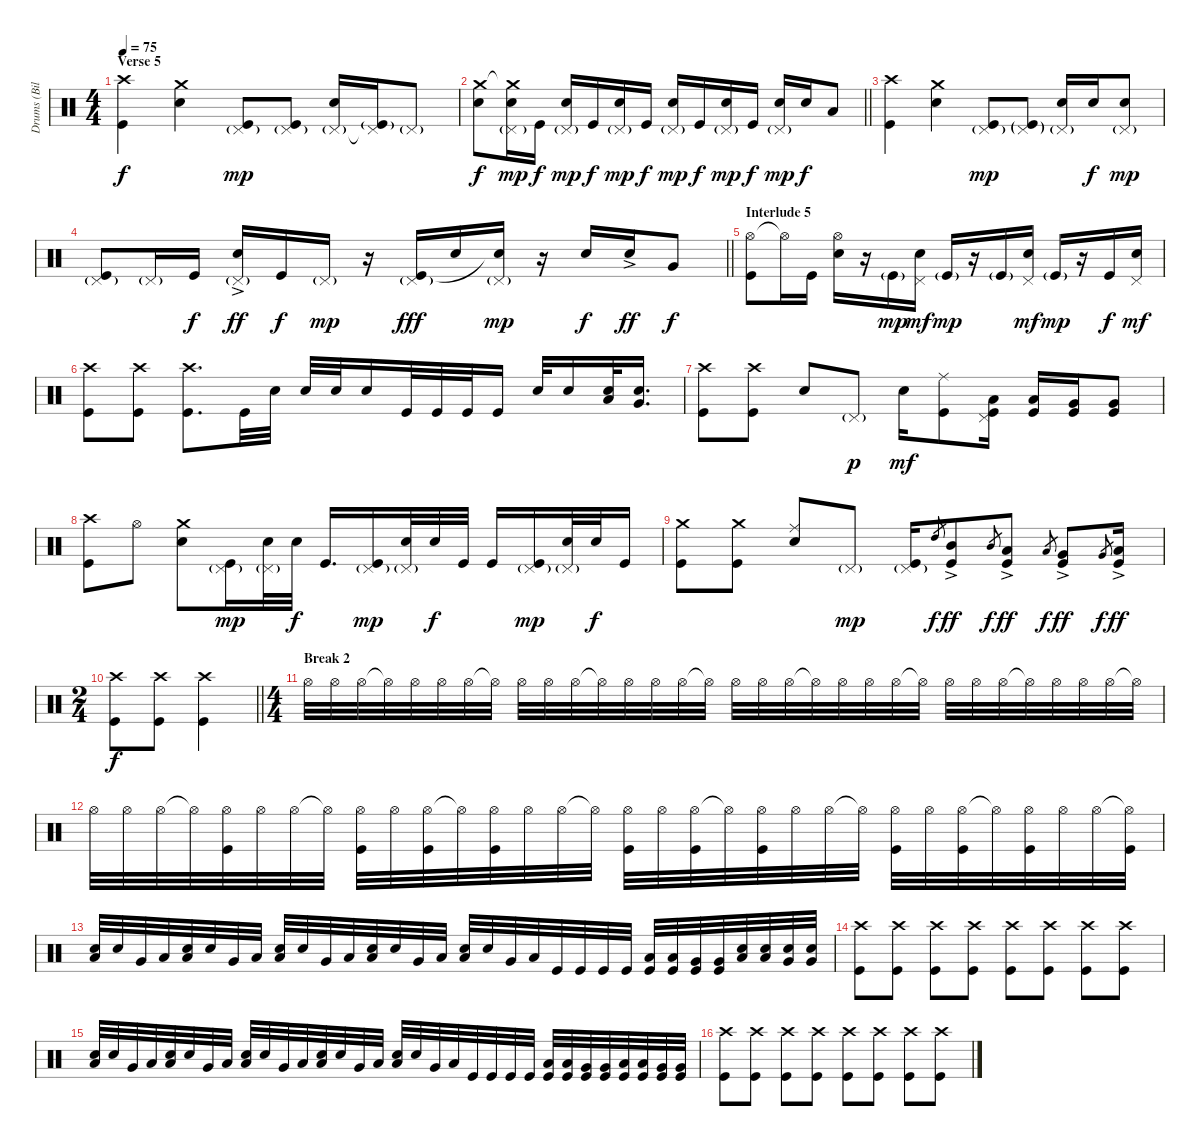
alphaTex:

\track ("Drums (Bill Ward)" "Drums (Bil") {instrument percussion}
\staff {score}
\articulation defaults
\ts (4 4)
\section ("" "Verse 5")
\tempo 75
\clef neutral
\ks c
("Crash high (hit)" "Kick (hit)").4{dy f} ("Crash medium (hit)" "Electric Snare (hit)").4 ("Pedal Hi-Hat (hit)"{g} "Kick (hit)").8{dy mp} ("Pedal Hi-Hat (hit)"{g} "Kick (hit)").8 ("Pedal Hi-Hat (hit)"{g} "Electric Snare (hit)").16 ("Pedal Hi-Hat (hit)"{t} "Kick (hit)"{g}).16 "Pedal Hi-Hat (hit)"{g}.8 |
\barLineRight lightlight
("Crash medium (hit)" "Electric Snare (hit)").8{dy f} ("Crash medium (hit)"{t} "Pedal Hi-Hat (hit)"{g} "Electric Snare (hit)").16{dy mp} "Kick (hit)".16{dy f} ("Pedal Hi-Hat (hit)"{g} "Electric Snare (hit)").16{dy mp} "Kick (hit)".16{dy f} ("Pedal Hi-Hat (hit)"{g} "Electric Snare (hit)").16{dy mp} "Kick (hit)".16{dy f} ("Pedal Hi-Hat (hit)"{g} "Electric Snare (hit)").16{dy mp} "Kick (hit)".16{dy f} ("Pedal Hi-Hat (hit)"{g} "Electric Snare (hit)").16{dy mp} "Kick (hit)".16{dy f} ("Pedal Hi-Hat (hit)"{g} "Electric Snare (hit)").16{dy mp} "Electric Snare (hit)".16{dy f} "Low Tom (hit)".8 |
("Crash high (hit)" "Kick (hit)").4 ("Crash medium (hit)" "Electric Snare (hit)").4 ("Pedal Hi-Hat (hit)"{g} "Kick (hit)").8{dy mp} ("Pedal Hi-Hat (hit)"{g} "Kick (hit)"{g}).8 ("Pedal Hi-Hat (hit)"{g} "Electric Snare (hit)").16 "Electric Snare (hit)".16{dy f} ("Pedal Hi-Hat (hit)"{g} "Electric Snare (hit)").8{dy mp} |
\barLineRight lightlight
("Pedal Hi-Hat (hit)"{g} "Kick (hit)").8 "Pedal Hi-Hat (hit)"{g}.16 "Kick (hit)".16{dy f} ("Pedal Hi-Hat (hit)"{g} "Electric Snare (hit)"{ac}).16{dy ff} "Kick (hit)".16{dy f} "Pedal Hi-Hat (hit)"{g}.16{dy mp} r.16 ("Pedal Hi-Hat (hit)"{g} "Kick (hit)").16{dy fff} "Electric Snare (hit)".16 ("Pedal Hi-Hat (hit)"{g} "Electric Snare (hit)"{t}).16{dy mp} r.16 "Electric Snare (hit)".16{dy f} "Electric Snare (hit)"{ac}.16{dy ff} "Very Low Tom (hit)".8{dy f} |
\section ("" "Interlude 5")
("Hi-Hat (open)" "Kick (hit)").8 "Hi-Hat (open)"{t}.16 "Kick (hit)".16 ("Hi-Hat (open)" "Electric Snare (hit)").16 r.16 "Kick (hit)"{g}.16{dy mp} ("Pedal Hi-Hat (hit)" "Electric Snare (hit)").16{dy mf} "Kick (hit)"{g}.16{dy mp} r.16 "Kick (hit)"{g}.16 ("Pedal Hi-Hat (hit)" "Electric Snare (hit)").16{dy mf} "Kick (hit)"{g}.16{dy mp} r.16 "Kick (hit)".16{dy f} ("Pedal Hi-Hat (hit)" "Electric Snare (hit)").16{dy mf} |
("Crash high (hit)" "Kick (hit)").8 ("Crash high (hit)" "Kick (hit)").8 ("Crash high (hit)" "Kick (hit)").8{d} "Kick (hit)".32 "Electric Snare (hit)".32 "Electric Snare (hit)".32 "Electric Snare (hit)".32 "Electric Snare (hit)".16 "Kick (hit)".32 "Kick (hit)".32 "Kick (hit)".32 "Kick (hit)".16 "Electric Snare (hit)".32 "Electric Snare (hit)".16 ("Low Tom (hit)" "Electric Snare (hit)").32 ("Very Low Tom (hit)" "Electric Snare (hit)").16{d} |
("Crash high (hit)" "Kick (hit)").8 ("Crash high (hit)" "Kick (hit)").8 "Electric Snare (hit)".8 "Pedal Hi-Hat (hit)"{g}.8{dy p} "Electric Snare (hit)".16{dy mf} ("Ride (middle)" "Kick (hit)").8 ("Pedal Hi-Hat (hit)" "Low Tom (hit)" "Kick (hit)").16 ("Low Tom (hit)" "Kick (hit)").16 ("Very Low Tom (hit)" "Kick (hit)").16 ("Very Low Tom (hit)" "Kick (hit)").8 |
("Crash high (hit)" "Kick (hit)").8 "Hi-Hat (open)".8 ("Crash medium (hit)" "Electric Snare (hit)").8 ("Pedal Hi-Hat (hit)"{g} "Kick (hit)").16{dy mp} ("Pedal Hi-Hat (hit)"{g} "Electric Snare (hit)").32 "Electric Snare (hit)".32{dy f} "Kick (hit)".16{d} ("Pedal Hi-Hat (hit)"{g} "Kick (hit)").16{dy mp} ("Pedal Hi-Hat (hit)"{g} "Electric Snare (hit)").32 "Electric Snare (hit)".32{dy f} "Kick (hit)".32 "Kick (hit)".16 ("Pedal Hi-Hat (hit)"{g} "Kick (hit)").16{dy mp} ("Pedal Hi-Hat (hit)"{g} "Electric Snare (hit)").32 "Electric Snare (hit)".32{dy f} "Kick (hit)".16 |
("Crash medium (hit)" "Kick (hit)").8 ("Crash medium (hit)" "Kick (hit)").8 ("Ride (middle)" "Electric Snare (hit)").8 "Pedal Hi-Hat (hit)"{g}.8{dy mp} ("Pedal Hi-Hat (hit)"{g} "Kick (hit)").16 "High Tom (hit)".8{gr dy f} ("Mid Tom (hit)"{ac} "Kick (hit)").8{dy ff} "Mid Tom (hit)".8{gr dy f} ("Low Tom (hit)"{ac} "Kick (hit)").8{dy ff} "Low Tom (hit)".8{gr dy f} ("Very Low Tom (hit)"{ac} "Kick (hit)").8{dy ff} "Very Low Tom (hit)".8{gr dy f} ("Low Floor Tom (hit)"{ac} "Kick (hit)").16{dy ff} |
\ts (2 4)
\barLineRight lightlight
("Crash high (hit)" "Kick (hit)").8{dy f} ("Crash high (hit)" "Kick (hit)").8 ("Crash high (hit)" "Kick (hit)").4 |
\ts (4 4)
\section ("" "Break 2")
"Hi-Hat (open)".32{volume 8} "Hi-Hat (open)".32{volume 14} "Hi-Hat (open)".32 "Hi-Hat (open)"{t}.32 "Hi-Hat (open)".32 "Hi-Hat (open)".32 "Hi-Hat (open)".32 "Hi-Hat (open)"{t}.32 "Hi-Hat (open)".32 "Hi-Hat (open)".32 "Hi-Hat (open)".32 "Hi-Hat (open)"{t}.32 "Hi-Hat (open)".32 "Hi-Hat (open)".32 "Hi-Hat (open)".32 "Hi-Hat (open)"{t}.32 "Hi-Hat (open)".32 "Hi-Hat (open)".32 "Hi-Hat (open)".32 "Hi-Hat (open)"{t}.32 "Hi-Hat (open)".32 "Hi-Hat (open)".32 "Hi-Hat (open)".32 "Hi-Hat (open)"{t}.32 "Hi-Hat (open)".32 "Hi-Hat (open)".32 "Hi-Hat (open)".32 "Hi-Hat (open)"{t}.32 "Hi-Hat (open)".32 "Hi-Hat (open)".32 "Hi-Hat (open)".32 "Hi-Hat (open)"{t}.32 |
"Hi-Hat (open)".32 "Hi-Hat (open)".32 "Hi-Hat (open)".32 "Hi-Hat (open)"{t}.32 ("Hi-Hat (open)" "Kick (hit)").32 "Hi-Hat (open)".32 "Hi-Hat (open)".32 "Hi-Hat (open)"{t}.32 ("Hi-Hat (open)" "Kick (hit)").32 "Hi-Hat (open)".32 ("Hi-Hat (open)" "Kick (hit)").32 "Hi-Hat (open)"{t}.32 ("Hi-Hat (open)" "Kick (hit)").32 "Hi-Hat (open)".32 "Hi-Hat (open)".32 "Hi-Hat (open)"{t}.32 ("Hi-Hat (open)" "Kick (hit)").32 "Hi-Hat (open)".32 ("Hi-Hat (open)" "Kick (hit)").32 "Hi-Hat (open)"{t}.32 ("Hi-Hat (open)" "Kick (hit)").32 "Hi-Hat (open)".32 "Hi-Hat (open)".32 "Hi-Hat (open)"{t}.32 ("Hi-Hat (open)" "Kick (hit)").32 "Hi-Hat (open)".32 ("Hi-Hat (open)" "Kick (hit)").32 "Hi-Hat (open)"{t}.32 ("Hi-Hat (open)" "Kick (hit)").32 "Hi-Hat (open)".32 "Hi-Hat (open)".32 ("Hi-Hat (open)"{t} "Kick (hit)").32 |
("Low Tom (hit)" "Electric Snare (hit)").32 "Electric Snare (hit)".32 "Very Low Tom (hit)".32 "Low Floor Tom (hit)".32 ("Low Tom (hit)" "Electric Snare (hit)").32 "Electric Snare (hit)".32 "Very Low Tom (hit)".32 "Low Floor Tom (hit)".32 ("Low Tom (hit)" "Electric Snare (hit)").32 "Electric Snare (hit)".32 "Very Low Tom (hit)".32 "Low Floor Tom (hit)".32 ("Low Tom (hit)" "Electric Snare (hit)").32 "Electric Snare (hit)".32 "Very Low Tom (hit)".32 "Low Floor Tom (hit)".32 ("Low Tom (hit)" "Electric Snare (hit)").32 "Electric Snare (hit)".32 "Very Low Tom (hit)".32 "Low Floor Tom (hit)".32 "Kick (hit)".32 "Kick (hit)".32 "Kick (hit)".32 "Kick (hit)".32 ("Low Floor Tom (hit)" "Kick (hit)").32 ("Low Floor Tom (hit)" "Kick (hit)").32 ("Very Low Tom (hit)" "Kick (hit)").32 ("Very Low Tom (hit)" "Kick (hit)").32 ("Low Floor Tom (hit)" "Electric Snare (hit)").32 ("Low Floor Tom (hit)" "Electric Snare (hit)").32 ("Very Low Tom (hit)" "Electric Snare (hit)").32 ("Very Low Tom (hit)" "Electric Snare (hit)").32 |
("Crash high (hit)" "Kick (hit)").8{volume 10} ("Crash high (hit)" "Kick (hit)").8 ("Crash high (hit)" "Kick (hit)").8 ("Crash high (hit)" "Kick (hit)").8 ("Crash high (hit)" "Kick (hit)").8 ("Crash high (hit)" "Kick (hit)").8 ("Crash high (hit)" "Kick (hit)").8 ("Crash high (hit)" "Kick (hit)").8 |
("Low Tom (hit)" "Electric Snare (hit)").32{volume 14} "Electric Snare (hit)".32 "Very Low Tom (hit)".32 "Low Floor Tom (hit)".32 ("Low Tom (hit)" "Electric Snare (hit)").32 "Electric Snare (hit)".32 "Very Low Tom (hit)".32 "Low Floor Tom (hit)".32 ("Low Tom (hit)" "Electric Snare (hit)").32 "Electric Snare (hit)".32 "Very Low Tom (hit)".32 "Low Floor Tom (hit)".32 ("Low Tom (hit)" "Electric Snare (hit)").32 "Electric Snare (hit)".32 "Very Low Tom (hit)".32 "Low Floor Tom (hit)".32 ("Low Tom (hit)" "Electric Snare (hit)").32 "Electric Snare (hit)".32 "Very Low Tom (hit)".32 "Low Floor Tom (hit)".32 "Kick (hit)".32 "Kick (hit)".32 "Kick (hit)".32 "Kick (hit)".32 ("Low Floor Tom (hit)" "Kick (hit)").32 ("Low Floor Tom (hit)" "Kick (hit)").32 ("Very Low Tom (hit)" "Kick (hit)").32 ("Very Low Tom (hit)" "Kick (hit)").32 ("Low Floor Tom (hit)" "Kick (hit)").32 ("Low Floor Tom (hit)" "Kick (hit)").32 ("Very Low Tom (hit)" "Kick (hit)").32 ("Very Low Tom (hit)" "Kick (hit)").32 |
("Crash high (hit)" "Kick (hit)").8{volume 10} ("Crash high (hit)" "Kick (hit)").8 ("Crash high (hit)" "Kick (hit)").8 ("Crash high (hit)" "Kick (hit)").8 ("Crash high (hit)" "Kick (hit)").8 ("Crash high (hit)" "Kick (hit)").8 ("Crash high (hit)" "Kick (hit)").8 ("Crash high (hit)" "Kick (hit)").8
